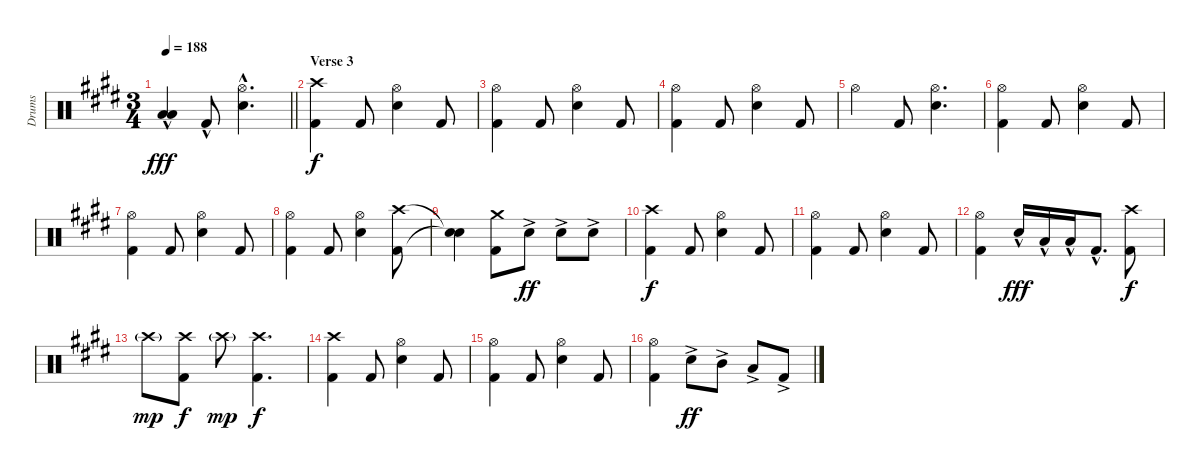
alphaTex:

\track ("Drums" "Drums") {instrument percussion}
\staff {score}
\articulation defaults
\ts (3 4)
\tempo 188
\clef neutral
\barLineRight lightlight
\ks e
("Low Tom (hit)"{hac} "Low Floor Tom (hit)"{hac}).4{dy fff} "Kick (hit) 2"{hac}.8 ("Hi-Hat (open)"{hac} "Electric Snare (hit)"{hac}).4{d} |
\section ("" "Verse 3")
("Crash high (hit)" "Kick (hit) 2").4{dy f} "Kick (hit) 2".8 ("Hi-Hat (open)" "Electric Snare (hit)").4 "Kick (hit) 2".8 |
("Hi-Hat (open)" "Kick (hit) 2").4 "Kick (hit) 2".8 ("Hi-Hat (open)" "Electric Snare (hit)").4 "Kick (hit) 2".8 |
("Hi-Hat (open)" "Kick (hit) 2").4 "Kick (hit) 2".8 ("Hi-Hat (open)" "Electric Snare (hit)").4 "Kick (hit) 2".8 |
"Hi-Hat (open)".4 "Kick (hit) 2".8 ("Hi-Hat (open)" "Electric Snare (hit)").4{d} |
("Hi-Hat (open)" "Kick (hit) 2").4 "Kick (hit) 2".8 ("Hi-Hat (open)" "Electric Snare (hit)").4 "Kick (hit) 2".8 |
("Hi-Hat (open)" "Kick (hit) 2").4 "Kick (hit) 2".8 ("Hi-Hat (open)" "Electric Snare (hit)").4 "Kick (hit) 2".8 |
("Hi-Hat (open)" "Kick (hit) 2").4 "Kick (hit) 2".8 ("Hi-Hat (open)" "Electric Snare (hit)").4 ("Crash high (hit)" "Kick (hit) 2").8 |
("Snare (hit)"{t} "Snare (hit)"{t}).4 ("Crash medium (hit)" "Kick (hit) 2").8 "Electric Snare (hit)"{ac}.8{dy ff} "Electric Snare (hit)"{ac}.8 "Electric Snare (hit)"{ac}.8 |
("Crash high (hit)" "Kick (hit) 2").4{dy f} "Kick (hit) 2".8 ("Hi-Hat (open)" "Electric Snare (hit)").4 "Kick (hit) 2".8 |
("Hi-Hat (open)" "Kick (hit) 2").4 "Kick (hit) 2".8 ("Hi-Hat (open)" "Electric Snare (hit)").4 "Kick (hit) 2".8 |
("Hi-Hat (open)" "Kick (hit) 2").4 "Electric Snare (hit)"{hac}.16{dy fff} "Low Tom (hit)"{hac}.16 "Low Tom (hit)"{hac}.16 "Kick (hit) 2"{hac}.8{d} ("Crash high (hit)" "Kick (hit) 2").8{dy f} |
"Crash high (hit)"{g}.8{dy mp} ("Crash high (hit)" "Kick (hit) 2").8{dy f} "Crash high (hit)"{g}.8{dy mp} ("Crash high (hit)" "Kick (hit) 2").4{d dy f} |
("Crash high (hit)" "Kick (hit) 2").4 "Kick (hit) 2".8 ("Hi-Hat (open)" "Electric Snare (hit)").4 "Kick (hit) 2".8 |
("Hi-Hat (open)" "Kick (hit) 2").4 "Kick (hit) 2".8 ("Hi-Hat (open)" "Electric Snare (hit)").4 "Kick (hit) 2".8 |
("Hi-Hat (open)" "Kick (hit) 2").4 "Electric Snare (hit)"{ac}.8{dy ff} "Mid Tom (hit)"{ac}.8 "Low Tom (hit)"{ac}.8 "Kick (hit) 2"{ac}.8
